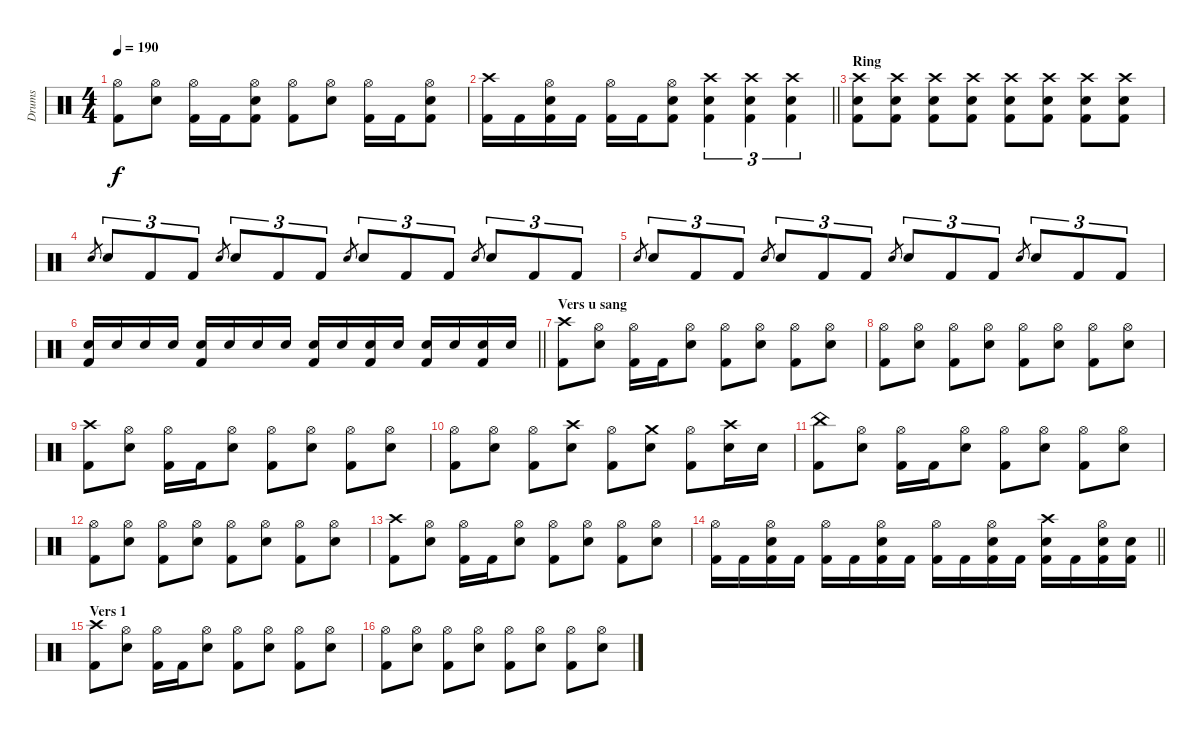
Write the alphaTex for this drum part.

\track ("Drums" "Drums") {instrument percussion}
\staff {score}
\articulation defaults
\ts (4 4)
\tempo 190
\clef neutral
\ks c
("Hi-Hat (open)" "Kick (hit) 2").8{dy f} ("Hi-Hat (open)" "Snare (hit) 2").8 ("Hi-Hat (open)" "Kick (hit) 2").16 "Kick (hit) 2".16 ("Hi-Hat (open)" "Snare (hit) 2" "Kick (hit) 2").8 ("Hi-Hat (open)" "Kick (hit) 2").8 ("Hi-Hat (open)" "Snare (hit) 2").8 ("Hi-Hat (open)" "Kick (hit) 2").16 "Kick (hit) 2".16 ("Hi-Hat (open)" "Snare (hit) 2" "Kick (hit) 2").8 |
\barLineRight lightlight
("Crash high (hit)" "Kick (hit) 2").16 "Kick (hit) 2".16 ("Hi-Hat (open)" "Snare (hit) 2" "Kick (hit) 2").16 "Kick (hit) 2".16 ("Hi-Hat (open)" "Kick (hit) 2").16 "Kick (hit) 2".16 ("Hi-Hat (open)" "Snare (hit) 2" "Kick (hit) 2").8 ("Crash high (hit)" "Snare (hit) 2" "Kick (hit) 2").4{tu (3 2)} ("Crash high (hit)" "Snare (hit) 2" "Kick (hit) 2").4{tu (3 2)} ("Crash high (hit)" "Snare (hit) 2" "Kick (hit) 2").4{tu (3 2)} |
\section ("" "Ring")
("Crash high (hit)" "Snare (hit) 2" "Kick (hit) 2").8 ("Crash high (hit)" "Snare (hit) 2" "Kick (hit) 2").8 ("Crash high (hit)" "Snare (hit) 2" "Kick (hit) 2").8 ("Crash high (hit)" "Snare (hit) 2" "Kick (hit) 2").8 ("Crash high (hit)" "Snare (hit) 2" "Kick (hit) 2").8 ("Crash high (hit)" "Snare (hit) 2" "Kick (hit) 2").8 ("Crash high (hit)" "Snare (hit) 2" "Kick (hit) 2").8 ("Crash high (hit)" "Snare (hit) 2" "Kick (hit) 2").8 |
"Snare (hit) 2".8{gr} "Snare (hit) 2".8{tu (3 2)} "Kick (hit) 2".8{tu (3 2)} "Kick (hit) 2".8{tu (3 2)} "Snare (hit) 2".8{gr} "Snare (hit) 2".8{tu (3 2)} "Kick (hit) 2".8{tu (3 2)} "Kick (hit) 2".8{tu (3 2)} "Snare (hit) 2".8{gr} "Snare (hit) 2".8{tu (3 2)} "Kick (hit) 2".8{tu (3 2)} "Kick (hit) 2".8{tu (3 2)} "Snare (hit) 2".8{gr} "Snare (hit) 2".8{tu (3 2)} "Kick (hit) 2".8{tu (3 2)} "Kick (hit) 2".8{tu (3 2)} |
"Snare (hit) 2".8{gr} "Snare (hit) 2".8{tu (3 2)} "Kick (hit) 2".8{tu (3 2)} "Kick (hit) 2".8{tu (3 2)} "Snare (hit) 2".8{gr} "Snare (hit) 2".8{tu (3 2)} "Kick (hit) 2".8{tu (3 2)} "Kick (hit) 2".8{tu (3 2)} "Snare (hit) 2".8{gr} "Snare (hit) 2".8{tu (3 2)} "Kick (hit) 2".8{tu (3 2)} "Kick (hit) 2".8{tu (3 2)} "Snare (hit) 2".8{gr} "Snare (hit) 2".8{tu (3 2)} "Kick (hit) 2".8{tu (3 2)} "Kick (hit) 2".8{tu (3 2)} |
\barLineRight lightlight
("Snare (hit) 2" "Kick (hit) 2").16 "Snare (hit) 2".16 "Snare (hit) 2".16 "Snare (hit) 2".16 ("Snare (hit) 2" "Kick (hit) 2").16 "Snare (hit) 2".16 "Snare (hit) 2".16 "Snare (hit) 2".16 ("Snare (hit) 2" "Kick (hit) 2").16 "Snare (hit) 2".16 ("Snare (hit) 2" "Kick (hit) 2").16 "Snare (hit) 2".16 ("Snare (hit) 2" "Kick (hit) 2").16 "Snare (hit) 2".16 ("Snare (hit) 2" "Kick (hit) 2").16 "Snare (hit) 2".16 |
\section ("" "Vers u sang")
("Crash high (hit)" "Kick (hit) 2").8 ("Hi-Hat (open)" "Snare (hit) 2").8 ("Hi-Hat (open)" "Kick (hit) 2").16 "Kick (hit) 2".16 ("Hi-Hat (open)" "Snare (hit) 2").8 ("Hi-Hat (open)" "Kick (hit) 2").8 ("Hi-Hat (open)" "Snare (hit) 2").8 ("Hi-Hat (open)" "Kick (hit) 2").8 ("Hi-Hat (open)" "Snare (hit) 2").8 |
("Hi-Hat (open)" "Kick (hit) 2").8 ("Hi-Hat (open)" "Snare (hit) 2").8 ("Hi-Hat (open)" "Kick (hit) 2").8 ("Hi-Hat (open)" "Snare (hit) 2").8 ("Hi-Hat (open)" "Kick (hit) 2").8 ("Hi-Hat (open)" "Snare (hit) 2").8 ("Hi-Hat (open)" "Kick (hit) 2").8 ("Hi-Hat (open)" "Snare (hit) 2").8 |
("Crash high (hit)" "Kick (hit) 2").8 ("Hi-Hat (open)" "Snare (hit) 2").8 ("Hi-Hat (open)" "Kick (hit) 2").16 "Kick (hit) 2".16 ("Hi-Hat (open)" "Snare (hit) 2").8 ("Hi-Hat (open)" "Kick (hit) 2").8 ("Hi-Hat (open)" "Snare (hit) 2").8 ("Hi-Hat (open)" "Kick (hit) 2").8 ("Hi-Hat (open)" "Snare (hit) 2").8 |
("Hi-Hat (open)" "Kick (hit) 2").8 ("Hi-Hat (open)" "Snare (hit) 2").8 ("Hi-Hat (open)" "Kick (hit) 2").8 ("Crash high (hit)" "Snare (hit) 2").8 ("Hi-Hat (open)" "Kick (hit) 2").8 ("Crash medium (hit)" "Snare (hit) 2").8 ("Hi-Hat (open)" "Kick (hit) 2").8 ("Crash high (hit)" "Snare (hit) 2").16 "Snare (hit) 2".16 |
("China (hit)" "Kick (hit) 2").8 ("Hi-Hat (open)" "Snare (hit) 2").8 ("Hi-Hat (open)" "Kick (hit) 2").16 "Kick (hit) 2".16 ("Hi-Hat (open)" "Snare (hit) 2").8 ("Hi-Hat (open)" "Kick (hit) 2").8 ("Hi-Hat (open)" "Snare (hit) 2").8 ("Hi-Hat (open)" "Kick (hit) 2").8 ("Hi-Hat (open)" "Snare (hit) 2").8 |
("Hi-Hat (open)" "Kick (hit) 2").8 ("Hi-Hat (open)" "Snare (hit) 2").8 ("Hi-Hat (open)" "Kick (hit) 2").8 ("Hi-Hat (open)" "Snare (hit) 2").8 ("Hi-Hat (open)" "Kick (hit) 2").8 ("Hi-Hat (open)" "Snare (hit) 2").8 ("Hi-Hat (open)" "Kick (hit) 2").8 ("Hi-Hat (open)" "Snare (hit) 2").8 |
("Crash high (hit)" "Kick (hit) 2").8 ("Hi-Hat (open)" "Snare (hit) 2").8 ("Hi-Hat (open)" "Kick (hit) 2").16 "Kick (hit) 2".16 ("Hi-Hat (open)" "Snare (hit) 2").8 ("Hi-Hat (open)" "Kick (hit) 2").8 ("Hi-Hat (open)" "Snare (hit) 2").8 ("Hi-Hat (open)" "Kick (hit) 2").8 ("Hi-Hat (open)" "Snare (hit) 2").8 |
\barLineRight lightlight
("Hi-Hat (open)" "Kick (hit) 2").16 "Kick (hit) 2".16 ("Hi-Hat (open)" "Snare (hit) 2" "Kick (hit) 2").16 "Kick (hit) 2".16 ("Hi-Hat (open)" "Kick (hit) 2").16 "Kick (hit) 2".16 ("Hi-Hat (open)" "Snare (hit) 2" "Kick (hit) 2").16 "Kick (hit) 2".16 ("Hi-Hat (open)" "Kick (hit) 2").16 "Kick (hit) 2".16 ("Hi-Hat (open)" "Snare (hit) 2" "Kick (hit) 2").16 "Kick (hit) 2".16 ("Crash high (hit)" "Snare (hit) 2" "Kick (hit) 2").16 "Kick (hit) 2".16 ("Hi-Hat (open)" "Snare (hit) 2" "Kick (hit) 2").16 ("Snare (hit) 2" "Kick (hit) 2").16 |
\section ("" "Vers 1")
("Crash high (hit)" "Kick (hit) 2").8 ("Hi-Hat (open)" "Snare (hit) 2").8 ("Hi-Hat (open)" "Kick (hit) 2").16 "Kick (hit) 2".16 ("Hi-Hat (open)" "Snare (hit) 2").8 ("Hi-Hat (open)" "Kick (hit) 2").8 ("Hi-Hat (open)" "Snare (hit) 2").8 ("Hi-Hat (open)" "Kick (hit) 2").8 ("Hi-Hat (open)" "Snare (hit) 2").8 |
("Hi-Hat (open)" "Kick (hit) 2").8 ("Hi-Hat (open)" "Snare (hit) 2").8 ("Hi-Hat (open)" "Kick (hit) 2").8 ("Hi-Hat (open)" "Snare (hit) 2").8 ("Hi-Hat (open)" "Kick (hit) 2").8 ("Hi-Hat (open)" "Snare (hit) 2").8 ("Hi-Hat (open)" "Kick (hit) 2").8 ("Hi-Hat (open)" "Snare (hit) 2").8
